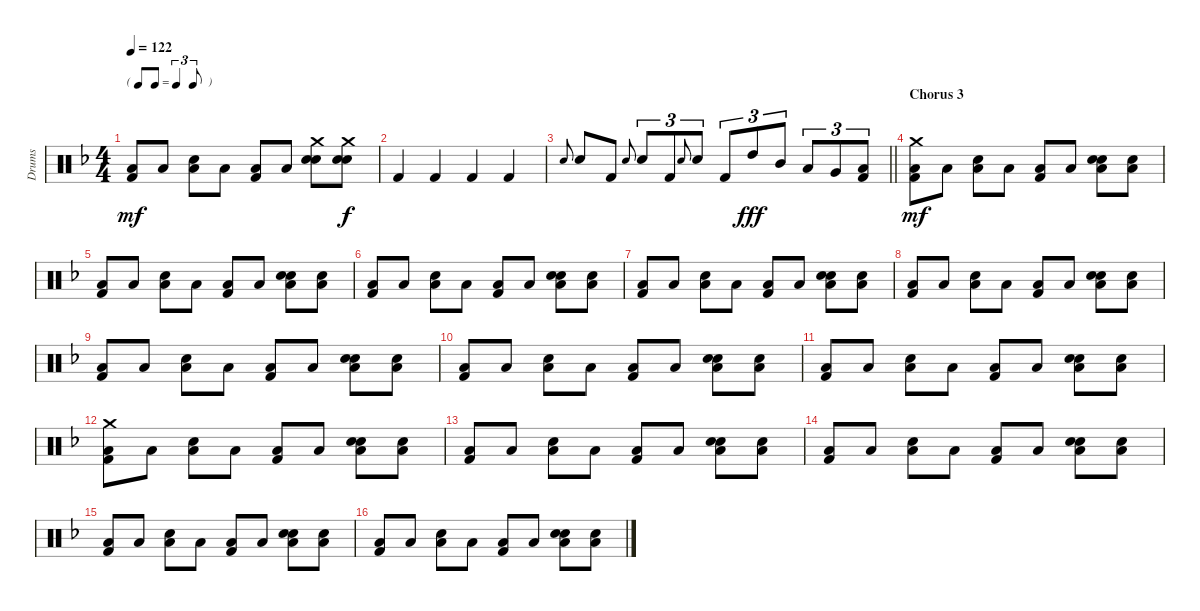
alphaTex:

\track ("Drums" "Drums") {instrument percussion}
\staff {score}
\articulation defaults
\ts (4 4)
\tf triplet8th
\tempo 122
\clef neutral
\ks dminor
("Low Floor Tom (hit)" "Kick (hit) 2").8{dy mf} "Low Floor Tom (hit)".8 ("Low Floor Tom (hit)" "Snare (hit) 2").8 "Low Floor Tom (hit)".8 ("Low Floor Tom (hit)" "Kick (hit) 2").8 "Low Floor Tom (hit)".8 ("Crash medium (hit)" "Hand Clap (hit)" "Snare (hit) 2").8 ("Crash medium (hit)" "Hand Clap (hit)" "Snare (hit) 2").8{dy f} |
"Kick (hit) 2".4 "Kick (hit) 2".4 "Kick (hit) 2".4 "Kick (hit) 2".4 |
\barLineRight lightlight "Snare (hit) 2".8{gr onbeat} "Snare (hit) 2".8 "Kick (hit) 2".8 "Snare (hit) 2".8{gr onbeat} "Snare (hit) 2".8{tu (3 2)} "Kick (hit) 2".8{tu (3 2)} "Snare (hit) 2".8{gr onbeat} "Snare (hit) 2".8{tu (3 2)} "Kick (hit) 2".8{tu (3 2)} "High Tom (hit)".8{tu (3 2) dy fff} "Mid Tom (hit)".8{tu (3 2)} "Low Tom (hit)".8{tu (3 2)} "Very Low Tom (hit)".8{tu (3 2)}
("Low Floor Tom (hit)" "Kick (hit) 2").8{tu (3 2)} |
\section ("" "Chorus 3")
("Crash medium (hit)" "Low Floor Tom (hit)" "Kick (hit) 2").8{dy mf} "Low Floor Tom (hit)".8 ("Low Floor Tom (hit)" "Snare (hit) 2").8 "Low Floor Tom (hit)".8 ("Low Floor Tom (hit)" "Kick (hit) 2").8 "Low Floor Tom (hit)".8 ("Hand Clap (hit)" "Low Floor Tom (hit)" "Snare (hit) 2").8 ("Hand Clap (hit)" "Low Floor Tom (hit)").8 |
("Low Floor Tom (hit)" "Kick (hit) 2").8 "Low Floor Tom (hit)".8 ("Low Floor Tom (hit)" "Snare (hit) 2").8 "Low Floor Tom (hit)".8 ("Low Floor Tom (hit)" "Kick (hit) 2").8 "Low Floor Tom (hit)".8 ("Hand Clap (hit)" "Low Floor Tom (hit)" "Snare (hit) 2").8 ("Hand Clap (hit)" "Low Floor Tom (hit)").8 |
("Low Floor Tom (hit)" "Kick (hit) 2").8 "Low Floor Tom (hit)".8 ("Low Floor Tom (hit)" "Snare (hit) 2").8 "Low Floor Tom (hit)".8 ("Low Floor Tom (hit)" "Kick (hit) 2").8 "Low Floor Tom (hit)".8 ("Hand Clap (hit)" "Low Floor Tom (hit)" "Snare (hit) 2").8 ("Hand Clap (hit)" "Low Floor Tom (hit)").8 |
("Low Floor Tom (hit)" "Kick (hit) 2").8 "Low Floor Tom (hit)".8 ("Low Floor Tom (hit)" "Snare (hit) 2").8 "Low Floor Tom (hit)".8 ("Low Floor Tom (hit)" "Kick (hit) 2").8 "Low Floor Tom (hit)".8 ("Hand Clap (hit)" "Low Floor Tom (hit)" "Snare (hit) 2").8 ("Hand Clap (hit)" "Low Floor Tom (hit)").8 |
("Low Floor Tom (hit)" "Kick (hit) 2").8 "Low Floor Tom (hit)".8 ("Low Floor Tom (hit)" "Snare (hit) 2").8 "Low Floor Tom (hit)".8 ("Low Floor Tom (hit)" "Kick (hit) 2").8 "Low Floor Tom (hit)".8 ("Hand Clap (hit)" "Low Floor Tom (hit)" "Snare (hit) 2").8 ("Hand Clap (hit)" "Low Floor Tom (hit)").8 |
("Low Floor Tom (hit)" "Kick (hit) 2").8 "Low Floor Tom (hit)".8 ("Low Floor Tom (hit)" "Snare (hit) 2").8 "Low Floor Tom (hit)".8 ("Low Floor Tom (hit)" "Kick (hit) 2").8 "Low Floor Tom (hit)".8 ("Hand Clap (hit)" "Low Floor Tom (hit)" "Snare (hit) 2").8 ("Hand Clap (hit)" "Low Floor Tom (hit)").8 |
("Low Floor Tom (hit)" "Kick (hit) 2").8 "Low Floor Tom (hit)".8 ("Low Floor Tom (hit)" "Snare (hit) 2").8 "Low Floor Tom (hit)".8 ("Low Floor Tom (hit)" "Kick (hit) 2").8 "Low Floor Tom (hit)".8 ("Hand Clap (hit)" "Low Floor Tom (hit)" "Snare (hit) 2").8 ("Hand Clap (hit)" "Low Floor Tom (hit)").8 |
("Low Floor Tom (hit)" "Kick (hit) 2").8 "Low Floor Tom (hit)".8 ("Low Floor Tom (hit)" "Snare (hit) 2").8 "Low Floor Tom (hit)".8 ("Low Floor Tom (hit)" "Kick (hit) 2").8 "Low Floor Tom (hit)".8 ("Hand Clap (hit)" "Low Floor Tom (hit)" "Snare (hit) 2").8 ("Hand Clap (hit)" "Low Floor Tom (hit)").8 |
("Crash medium (hit)" "Low Floor Tom (hit)" "Kick (hit) 2").8 "Low Floor Tom (hit)".8 ("Low Floor Tom (hit)" "Snare (hit) 2").8 "Low Floor Tom (hit)".8 ("Low Floor Tom (hit)" "Kick (hit) 2").8 "Low Floor Tom (hit)".8 ("Hand Clap (hit)" "Low Floor Tom (hit)" "Snare (hit) 2").8 ("Hand Clap (hit)" "Low Floor Tom (hit)").8 |
("Low Floor Tom (hit)" "Kick (hit) 2").8 "Low Floor Tom (hit)".8 ("Low Floor Tom (hit)" "Snare (hit) 2").8 "Low Floor Tom (hit)".8 ("Low Floor Tom (hit)" "Kick (hit) 2").8 "Low Floor Tom (hit)".8 ("Hand Clap (hit)" "Low Floor Tom (hit)" "Snare (hit) 2").8 ("Hand Clap (hit)" "Low Floor Tom (hit)").8 |
("Low Floor Tom (hit)" "Kick (hit) 2").8 "Low Floor Tom (hit)".8 ("Low Floor Tom (hit)" "Snare (hit) 2").8 "Low Floor Tom (hit)".8 ("Low Floor Tom (hit)" "Kick (hit) 2").8 "Low Floor Tom (hit)".8 ("Hand Clap (hit)" "Low Floor Tom (hit)" "Snare (hit) 2").8 ("Hand Clap (hit)" "Low Floor Tom (hit)").8 |
("Low Floor Tom (hit)" "Kick (hit) 2").8 "Low Floor Tom (hit)".8 ("Low Floor Tom (hit)" "Snare (hit) 2").8 "Low Floor Tom (hit)".8 ("Low Floor Tom (hit)" "Kick (hit) 2").8 "Low Floor Tom (hit)".8 ("Hand Clap (hit)" "Low Floor Tom (hit)" "Snare (hit) 2").8 ("Hand Clap (hit)" "Low Floor Tom (hit)").8 |
("Low Floor Tom (hit)" "Kick (hit) 2").8 "Low Floor Tom (hit)".8 ("Low Floor Tom (hit)" "Snare (hit) 2").8 "Low Floor Tom (hit)".8 ("Low Floor Tom (hit)" "Kick (hit) 2").8 "Low Floor Tom (hit)".8 ("Hand Clap (hit)" "Low Floor Tom (hit)" "Snare (hit) 2").8 ("Hand Clap (hit)" "Low Floor Tom (hit)").8
